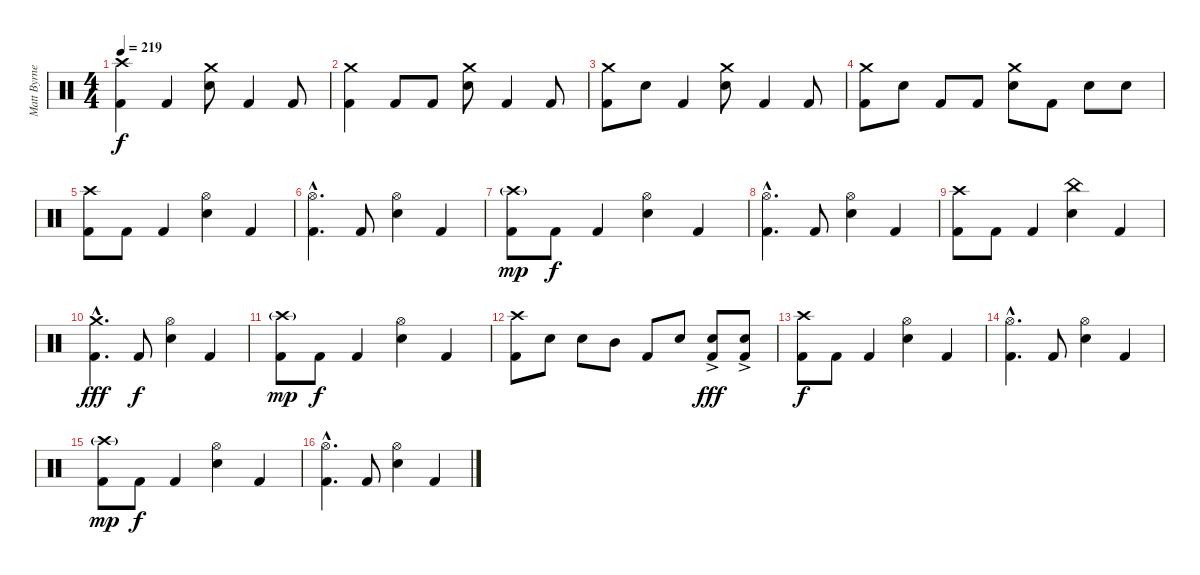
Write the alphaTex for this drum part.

\track ("Matt Byrne (Drums)" "Matt Byrne") {instrument percussion}
\staff {score}
\articulation defaults
\ts (4 4)
\tempo 219
\clef neutral
\ks c
("Crash high (hit)" "Kick (hit) 2").4{dy f} "Kick (hit) 2".4 ("Crash medium (hit)" "Snare (hit) 2").8 "Kick (hit) 2".4 "Kick (hit) 2".8 |
("Crash medium (hit)" "Kick (hit) 2").4 "Kick (hit) 2".8 "Kick (hit) 2".8 ("Crash medium (hit)" "Snare (hit) 2").8 "Kick (hit) 2".4 "Kick (hit) 2".8 |
("Crash medium (hit)" "Kick (hit) 2").8 "Snare (hit) 2".8 "Kick (hit) 2".4 ("Crash medium (hit)" "Snare (hit) 2").8 "Kick (hit) 2".4 "Kick (hit) 2".8 |
("Crash medium (hit)" "Kick (hit) 2").8 "Snare (hit) 2".8 "Kick (hit) 2".8 "Kick (hit) 2".8 ("Crash medium (hit)" "Snare (hit) 2").8 "Kick (hit) 2".8 "Snare (hit) 2".8 "Snare (hit) 2".8 |
("Crash high (hit)" "Kick (hit) 2").8 "Kick (hit) 2".8 "Kick (hit) 2".4 ("Hi-Hat (open)" "Snare (hit) 2").4 "Kick (hit) 2".4 |
("Hi-Hat (open)"{hac} "Kick (hit) 2"{hac}).4{d} "Kick (hit) 2".8 ("Hi-Hat (open)" "Snare (hit) 2").4 "Kick (hit) 2".4 |
("Crash high (hit)"{g} "Kick (hit) 2").8{dy mp} "Kick (hit) 2".8{dy f} "Kick (hit) 2".4 ("Hi-Hat (open)" "Snare (hit) 2").4 "Kick (hit) 2".4 |
("Hi-Hat (open)"{hac} "Kick (hit) 2"{hac}).4{d} "Kick (hit) 2".8 ("Hi-Hat (open)" "Snare (hit) 2").4 "Kick (hit) 2".4 |
("Crash high (hit)" "Kick (hit) 2").8 "Kick (hit) 2".8 "Kick (hit) 2".4 ("China (hit)" "Snare (hit) 2").4 "Kick (hit) 2".4 |
("Crash medium (hit)"{hac} "Kick (hit) 2"{hac}).4{d dy fff} "Kick (hit) 2".8{dy f} ("Hi-Hat (open)" "Snare (hit) 2").4 "Kick (hit) 2".4 |
("Crash high (hit)"{g} "Kick (hit) 2").8{dy mp} "Kick (hit) 2".8{dy f} "Kick (hit) 2".4 ("Hi-Hat (open)" "Snare (hit) 2").4 "Kick (hit) 2".4 |
("Kick (hit) 2" "Crash high (hit)").8 "Snare (hit) 2".8 "Snare (hit) 2".8 "Mid Tom (hit)".8 "Kick (hit) 2".8 "Snare (hit) 2".8 ("Kick (hit) 2"{ac} "Snare (hit) 2").8{dy fff} ("Kick (hit) 2"{ac} "Snare (hit) 2").8 |
("Crash high (hit)" "Kick (hit) 2").8{dy f} "Kick (hit) 2".8 "Kick (hit) 2".4 ("Hi-Hat (open)" "Snare (hit) 2").4 "Kick (hit) 2".4 |
("Hi-Hat (open)"{hac} "Kick (hit) 2"{hac}).4{d} "Kick (hit) 2".8 ("Hi-Hat (open)" "Snare (hit) 2").4 "Kick (hit) 2".4 |
("Crash high (hit)"{g} "Kick (hit) 2").8{dy mp} "Kick (hit) 2".8{dy f} "Kick (hit) 2".4 ("Hi-Hat (open)" "Snare (hit) 2").4 "Kick (hit) 2".4 |
("Hi-Hat (open)"{hac} "Kick (hit) 2"{hac}).4{d} "Kick (hit) 2".8 ("Hi-Hat (open)" "Snare (hit) 2").4 "Kick (hit) 2".4
